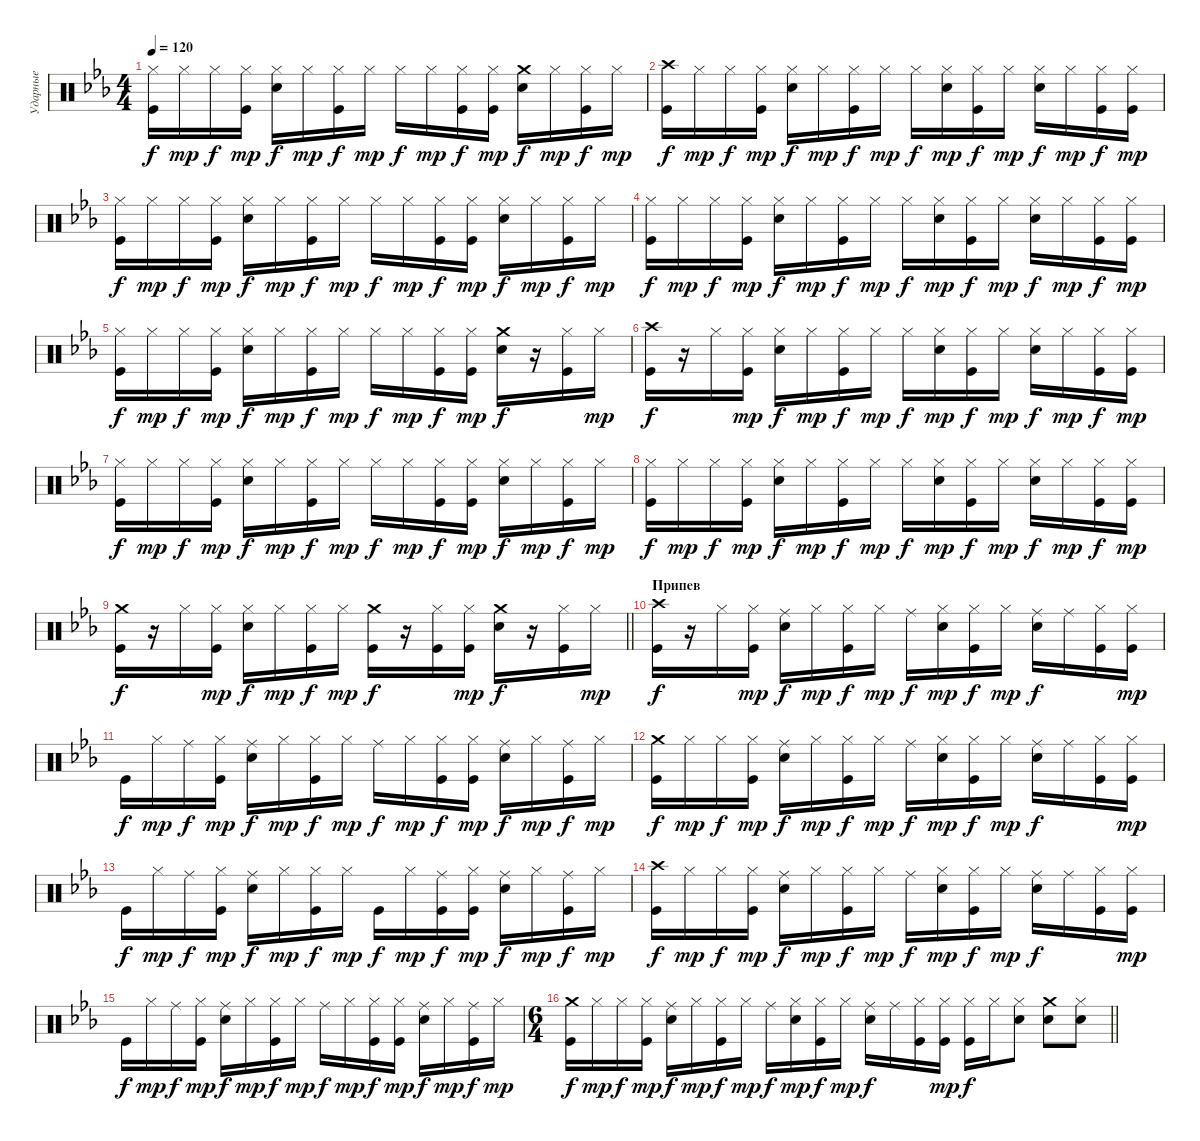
\track ("Ударные" "Ударные") {instrument percussion}
\staff {score}
\articulation defaults
\ts (4 4)
\tempo 120
\clef neutral
\ks cminor
("Hi-Hat (closed)" "Kick (hit)").16{dy f} "Hi-Hat (closed)".16{dy mp} "Hi-Hat (closed)".16{dy f} ("Hi-Hat (closed)" "Kick (hit)").16{dy mp} ("Hi-Hat (closed)" "Snare (hit) 2").16{dy f} "Hi-Hat (closed)".16{dy mp} ("Hi-Hat (closed)" "Kick (hit)").16{dy f} "Hi-Hat (closed)".16{dy mp} "Hi-Hat (closed)".16{dy f} "Hi-Hat (closed)".16{dy mp} ("Hi-Hat (closed)" "Kick (hit)").16{dy f} ("Hi-Hat (closed)" "Kick (hit)").16{dy mp} ("Crash medium (hit)" "Snare (hit) 2").16{dy f} "Hi-Hat (closed)".16{dy mp} ("Hi-Hat (closed)" "Kick (hit)").16{dy f} "Hi-Hat (closed)".16{dy mp} |
("Crash high (hit)" "Kick (hit)").16{dy f} "Hi-Hat (closed)".16{dy mp} "Hi-Hat (closed)".16{dy f} ("Hi-Hat (closed)" "Kick (hit)").16{dy mp} ("Hi-Hat (closed)" "Snare (hit) 2").16{dy f} "Hi-Hat (closed)".16{dy mp} ("Hi-Hat (closed)" "Kick (hit)").16{dy f} "Hi-Hat (closed)".16{dy mp} "Hi-Hat (closed)".16{dy f} ("Hi-Hat (closed)" "Snare (hit) 2").16{dy mp} ("Hi-Hat (closed)" "Kick (hit)").16{dy f} "Hi-Hat (closed)".16{dy mp} ("Hi-Hat (closed)" "Snare (hit) 2").16{dy f} "Hi-Hat (closed)".16{dy mp} ("Hi-Hat (closed)" "Kick (hit)").16{dy f} ("Hi-Hat (closed)" "Kick (hit)").16{dy mp} |
("Hi-Hat (closed)" "Kick (hit)").16{dy f} "Hi-Hat (closed)".16{dy mp} "Hi-Hat (closed)".16{dy f} ("Hi-Hat (closed)" "Kick (hit)").16{dy mp} ("Hi-Hat (closed)" "Snare (hit) 2").16{dy f} "Hi-Hat (closed)".16{dy mp} ("Hi-Hat (closed)" "Kick (hit)").16{dy f} "Hi-Hat (closed)".16{dy mp} "Hi-Hat (closed)".16{dy f} "Hi-Hat (closed)".16{dy mp} ("Hi-Hat (closed)" "Kick (hit)").16{dy f} ("Hi-Hat (closed)" "Kick (hit)").16{dy mp} ("Hi-Hat (closed)" "Snare (hit) 2").16{dy f} "Hi-Hat (closed)".16{dy mp} ("Hi-Hat (closed)" "Kick (hit)").16{dy f} "Hi-Hat (closed)".16{dy mp} |
("Hi-Hat (closed)" "Kick (hit)").16{dy f} "Hi-Hat (closed)".16{dy mp} "Hi-Hat (closed)".16{dy f} ("Hi-Hat (closed)" "Kick (hit)").16{dy mp} ("Hi-Hat (closed)" "Snare (hit) 2").16{dy f} "Hi-Hat (closed)".16{dy mp} ("Hi-Hat (closed)" "Kick (hit)").16{dy f} "Hi-Hat (closed)".16{dy mp} "Hi-Hat (closed)".16{dy f} ("Hi-Hat (closed)" "Snare (hit) 2").16{dy mp} ("Hi-Hat (closed)" "Kick (hit)").16{dy f} "Hi-Hat (closed)".16{dy mp} ("Hi-Hat (closed)" "Snare (hit) 2").16{dy f} "Hi-Hat (closed)".16{dy mp} ("Hi-Hat (closed)" "Kick (hit)").16{dy f} ("Hi-Hat (closed)" "Kick (hit)").16{dy mp} |
("Hi-Hat (closed)" "Kick (hit)").16{dy f} "Hi-Hat (closed)".16{dy mp} "Hi-Hat (closed)".16{dy f} ("Hi-Hat (closed)" "Kick (hit)").16{dy mp} ("Hi-Hat (closed)" "Snare (hit) 2").16{dy f} "Hi-Hat (closed)".16{dy mp} ("Hi-Hat (closed)" "Kick (hit)").16{dy f} "Hi-Hat (closed)".16{dy mp} "Hi-Hat (closed)".16{dy f} "Hi-Hat (closed)".16{dy mp} ("Hi-Hat (closed)" "Kick (hit)").16{dy f} ("Hi-Hat (closed)" "Kick (hit)").16{dy mp} ("Crash medium (hit)" "Snare (hit) 2").16{dy f} r.16 ("Hi-Hat (closed)" "Kick (hit)").16 "Hi-Hat (closed)".16{dy mp} |
("Crash high (hit)" "Kick (hit)").16{dy f} r.16 "Hi-Hat (closed)".16 ("Hi-Hat (closed)" "Kick (hit)").16{dy mp} ("Hi-Hat (closed)" "Snare (hit) 2").16{dy f} "Hi-Hat (closed)".16{dy mp} ("Hi-Hat (closed)" "Kick (hit)").16{dy f} "Hi-Hat (closed)".16{dy mp} "Hi-Hat (closed)".16{dy f} ("Hi-Hat (closed)" "Snare (hit) 2").16{dy mp} ("Hi-Hat (closed)" "Kick (hit)").16{dy f} "Hi-Hat (closed)".16{dy mp} ("Hi-Hat (closed)" "Snare (hit) 2").16{dy f} "Hi-Hat (closed)".16{dy mp} ("Hi-Hat (closed)" "Kick (hit)").16{dy f} ("Hi-Hat (closed)" "Kick (hit)").16{dy mp} |
("Hi-Hat (closed)" "Kick (hit)").16{dy f} "Hi-Hat (closed)".16{dy mp} "Hi-Hat (closed)".16{dy f} ("Hi-Hat (closed)" "Kick (hit)").16{dy mp} ("Hi-Hat (closed)" "Snare (hit) 2").16{dy f} "Hi-Hat (closed)".16{dy mp} ("Hi-Hat (closed)" "Kick (hit)").16{dy f} "Hi-Hat (closed)".16{dy mp} "Hi-Hat (closed)".16{dy f} "Hi-Hat (closed)".16{dy mp} ("Hi-Hat (closed)" "Kick (hit)").16{dy f} ("Hi-Hat (closed)" "Kick (hit)").16{dy mp} ("Hi-Hat (closed)" "Snare (hit) 2").16{dy f} "Hi-Hat (closed)".16{dy mp} ("Hi-Hat (closed)" "Kick (hit)").16{dy f} "Hi-Hat (closed)".16{dy mp} |
("Hi-Hat (closed)" "Kick (hit)").16{dy f} "Hi-Hat (closed)".16{dy mp} "Hi-Hat (closed)".16{dy f} ("Hi-Hat (closed)" "Kick (hit)").16{dy mp} ("Hi-Hat (closed)" "Snare (hit) 2").16{dy f} "Hi-Hat (closed)".16{dy mp} ("Hi-Hat (closed)" "Kick (hit)").16{dy f} "Hi-Hat (closed)".16{dy mp} "Hi-Hat (closed)".16{dy f} ("Hi-Hat (closed)" "Snare (hit) 2").16{dy mp} ("Hi-Hat (closed)" "Kick (hit)").16{dy f} "Hi-Hat (closed)".16{dy mp} ("Hi-Hat (closed)" "Snare (hit) 2").16{dy f} "Hi-Hat (closed)".16{dy mp} ("Hi-Hat (closed)" "Kick (hit)").16{dy f} ("Hi-Hat (closed)" "Kick (hit)").16{dy mp} |
\barLineRight lightlight
("Crash medium (hit)" "Kick (hit)").16{dy f} r.16 "Hi-Hat (closed)".16 ("Hi-Hat (closed)" "Kick (hit)").16{dy mp} ("Hi-Hat (closed)" "Snare (hit) 2").16{dy f} "Hi-Hat (closed)".16{dy mp} ("Hi-Hat (closed)" "Kick (hit)").16{dy f} "Hi-Hat (closed)".16{dy mp} ("Crash medium (hit)" "Kick (hit)").16{dy f} r.16 ("Hi-Hat (closed)" "Kick (hit)").16 ("Hi-Hat (closed)" "Kick (hit)").16{dy mp} ("Crash medium (hit)" "Snare (hit) 2").16{dy f} r.16 ("Hi-Hat (closed)" "Kick (hit)").16 "Hi-Hat (closed)".16{dy mp} |
\section ("" "Припев")
("Crash high (hit)" "Kick (hit)").16{dy f} r.16 "Hi-Hat (closed)".16 ("Hi-Hat (closed)" "Kick (hit)").16{dy mp} ("Ride (middle)" "Snare (hit) 2").16{dy f} "Hi-Hat (closed)".16{dy mp} ("Hi-Hat (closed)" "Kick (hit)").16{dy f} "Hi-Hat (closed)".16{dy mp} "Ride (middle)".16{dy f} ("Hi-Hat (closed)" "Snare (hit) 2").16{dy mp} ("Hi-Hat (closed)" "Kick (hit)").16{dy f} "Hi-Hat (closed)".16{dy mp} ("Ride (middle)" "Snare (hit) 2").16{dy f} "Ride (middle)".16 ("Hi-Hat (closed)" "Kick (hit)").16 ("Hi-Hat (closed)" "Kick (hit)").16{dy mp} |
"Kick (hit)".16{dy f} "Hi-Hat (closed)".16{dy mp} "Ride (middle)".16{dy f} ("Hi-Hat (closed)" "Kick (hit)").16{dy mp} ("Ride (middle)" "Snare (hit) 2").16{dy f} "Hi-Hat (closed)".16{dy mp} ("Hi-Hat (closed)" "Kick (hit)").16{dy f} "Hi-Hat (closed)".16{dy mp} "Ride (middle)".16{dy f} "Hi-Hat (closed)".16{dy mp} ("Hi-Hat (closed)" "Kick (hit)").16{dy f} ("Hi-Hat (closed)" "Kick (hit)").16{dy mp} ("Ride (middle)" "Snare (hit) 2").16{dy f} "Hi-Hat (closed)".16{dy mp} ("Ride (middle)" "Kick (hit)").16{dy f} "Hi-Hat (closed)".16{dy mp} |
("Crash medium (hit)" "Kick (hit)").16{dy f} "Hi-Hat (closed)".16{dy mp} "Hi-Hat (closed)".16{dy f} ("Hi-Hat (closed)" "Kick (hit)").16{dy mp} ("Ride (middle)" "Snare (hit) 2").16{dy f} "Hi-Hat (closed)".16{dy mp} ("Hi-Hat (closed)" "Kick (hit)").16{dy f} "Hi-Hat (closed)".16{dy mp} "Ride (middle)".16{dy f} ("Hi-Hat (closed)" "Snare (hit) 2").16{dy mp} ("Hi-Hat (closed)" "Kick (hit)").16{dy f} "Hi-Hat (closed)".16{dy mp} ("Ride (middle)" "Snare (hit) 2").16{dy f} "Ride (middle)".16 ("Hi-Hat (closed)" "Kick (hit)").16 ("Hi-Hat (closed)" "Kick (hit)").16{dy mp} |
"Kick (hit)".16{dy f} "Hi-Hat (closed)".16{dy mp} "Ride (middle)".16{dy f} ("Hi-Hat (closed)" "Kick (hit)").16{dy mp} ("Ride (middle)" "Snare (hit) 2").16{dy f} "Hi-Hat (closed)".16{dy mp} ("Hi-Hat (closed)" "Kick (hit)").16{dy f} "Hi-Hat (closed)".16{dy mp} "Kick (hit)".16{dy f} "Hi-Hat (closed)".16{dy mp} ("Ride (middle)" "Kick (hit)").16{dy f} ("Hi-Hat (closed)" "Kick (hit)").16{dy mp} ("Ride (middle)" "Snare (hit) 2").16{dy f} "Hi-Hat (closed)".16{dy mp} ("Ride (middle)" "Kick (hit)").16{dy f} "Hi-Hat (closed)".16{dy mp} |
("Crash high (hit)" "Kick (hit)").16{dy f} "Hi-Hat (closed)".16{dy mp} "Hi-Hat (closed)".16{dy f} ("Hi-Hat (closed)" "Kick (hit)").16{dy mp} ("Ride (middle)" "Snare (hit) 2").16{dy f} "Hi-Hat (closed)".16{dy mp} ("Hi-Hat (closed)" "Kick (hit)").16{dy f} "Hi-Hat (closed)".16{dy mp} "Ride (middle)".16{dy f} ("Hi-Hat (closed)" "Snare (hit) 2").16{dy mp} ("Hi-Hat (closed)" "Kick (hit)").16{dy f} "Hi-Hat (closed)".16{dy mp} ("Ride (middle)" "Snare (hit) 2").16{dy f} "Ride (middle)".16 ("Hi-Hat (closed)" "Kick (hit)").16 ("Hi-Hat (closed)" "Kick (hit)").16{dy mp} |
"Kick (hit)".16{dy f} "Hi-Hat (closed)".16{dy mp} "Ride (middle)".16{dy f} ("Hi-Hat (closed)" "Kick (hit)").16{dy mp} ("Ride (middle)" "Snare (hit) 2").16{dy f} "Hi-Hat (closed)".16{dy mp} ("Hi-Hat (closed)" "Kick (hit)").16{dy f} "Hi-Hat (closed)".16{dy mp} "Ride (middle)".16{dy f} "Hi-Hat (closed)".16{dy mp} ("Hi-Hat (closed)" "Kick (hit)").16{dy f} ("Hi-Hat (closed)" "Kick (hit)").16{dy mp} ("Ride (middle)" "Snare (hit) 2").16{dy f} "Hi-Hat (closed)".16{dy mp} ("Ride (middle)" "Kick (hit)").16{dy f} "Hi-Hat (closed)".16{dy mp} |
\ts (6 4)
\barLineRight lightlight
("Crash medium (hit)" "Kick (hit)").16{dy f} "Hi-Hat (closed)".16{dy mp} "Hi-Hat (closed)".16{dy f} ("Hi-Hat (closed)" "Kick (hit)").16{dy mp} ("Ride (middle)" "Snare (hit) 2").16{dy f} "Hi-Hat (closed)".16{dy mp} ("Hi-Hat (closed)" "Kick (hit)").16{dy f} "Hi-Hat (closed)".16{dy mp} "Ride (middle)".16{dy f} ("Hi-Hat (closed)" "Snare (hit) 2").16{dy mp} ("Hi-Hat (closed)" "Kick (hit)").16{dy f} "Hi-Hat (closed)".16{dy mp} ("Ride (middle)" "Snare (hit) 2").16{dy f} "Ride (middle)".16 ("Hi-Hat (closed)" "Kick (hit)").16 ("Hi-Hat (closed)" "Kick (hit)").16{dy mp} ("Hi-Hat (closed)" "Kick (hit)").16{dy f} "Hi-Hat (closed)".16 ("Hi-Hat (closed)" "Snare (hit) 2").8 ("Crash medium (hit)" "Snare (hit) 2").8 ("Hi-Hat (closed)" "Snare (hit) 2").8
